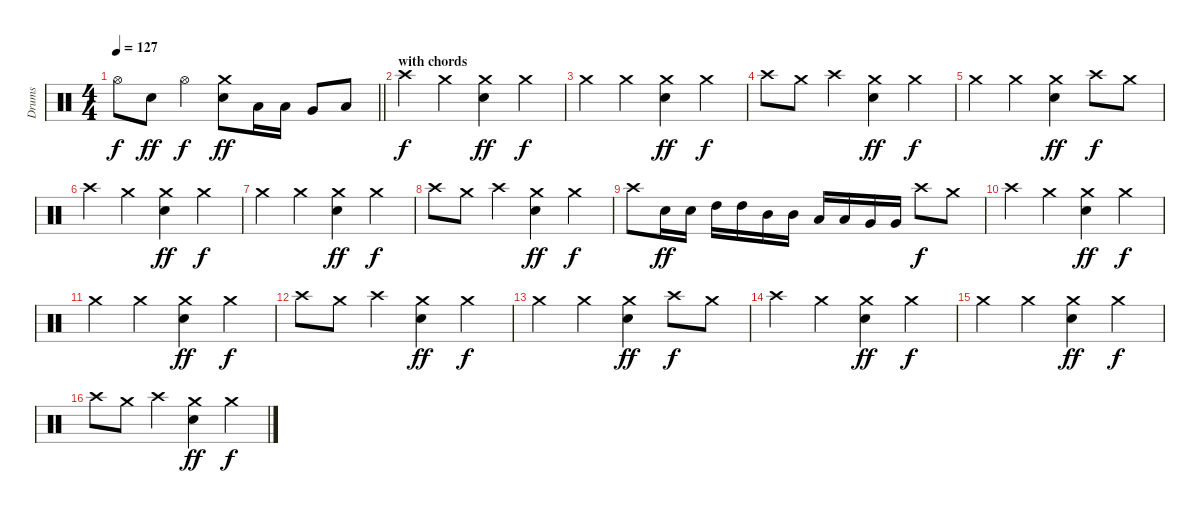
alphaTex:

\track ("Drums" "Drums") {instrument percussion}
\staff {score}
\articulation defaults
\ts (4 4)
\tempo 127
\clef neutral
\barLineRight lightlight
\ks c "Hi-Hat (open)".8{dy f} "Snare (hit) 2".8{dy ff} "Hi-Hat (open)".4{dy f}
("Crash medium (hit)" "Snare (hit) 2").8{dy ff} "Low Tom (hit)".16 "Low Tom (hit)".16 "Very Low Tom (hit)".8 "Low Floor Tom (hit)".8 |
\section ("" "with chords")
"Crash high (hit)".4{dy f} "Crash medium (hit)".4 ("Crash medium (hit)" "Snare (hit) 2").4{dy ff} "Crash medium (hit)".4{dy f} |
"Crash medium (hit)".4 "Crash medium (hit)".4 ("Crash medium (hit)" "Snare (hit) 2").4{dy ff} "Crash medium (hit)".4{dy f} |
"Crash high (hit)".8 "Crash medium (hit)".8 "Crash high (hit)".4 ("Crash medium (hit)" "Snare (hit) 2").4{dy ff} "Crash medium (hit)".4{dy f} |
"Crash medium (hit)".4 "Crash medium (hit)".4 ("Crash medium (hit)" "Snare (hit) 2").4{dy ff} "Crash high (hit)".8{dy f} "Crash medium (hit)".8 |
"Crash high (hit)".4 "Crash medium (hit)".4 ("Crash medium (hit)" "Snare (hit) 2").4{dy ff} "Crash medium (hit)".4{dy f} |
"Crash medium (hit)".4 "Crash medium (hit)".4 ("Crash medium (hit)" "Snare (hit) 2").4{dy ff} "Crash medium (hit)".4{dy f} |
"Crash high (hit)".8 "Crash medium (hit)".8 "Crash high (hit)".4 ("Crash medium (hit)" "Snare (hit) 2").4{dy ff} "Crash medium (hit)".4{dy f} |
"Crash high (hit)".8 "Snare (hit) 2".16{dy ff} "Snare (hit) 2".16 "High Tom (hit)".16 "High Tom (hit)".16 "Mid Tom (hit)".16 "Mid Tom (hit)".16 "Low Tom (hit)".16 "Low Tom (hit)".16 "Very Low Tom (hit)".16 "Very Low Tom (hit)".16 "Crash high (hit)".8{dy f} "Crash medium (hit)".8 |
"Crash high (hit)".4 "Crash medium (hit)".4 ("Crash medium (hit)" "Snare (hit) 2").4{dy ff} "Crash medium (hit)".4{dy f} |
"Crash medium (hit)".4 "Crash medium (hit)".4 ("Crash medium (hit)" "Snare (hit) 2").4{dy ff} "Crash medium (hit)".4{dy f} |
"Crash high (hit)".8 "Crash medium (hit)".8 "Crash high (hit)".4 ("Crash medium (hit)" "Snare (hit) 2").4{dy ff} "Crash medium (hit)".4{dy f} |
"Crash medium (hit)".4 "Crash medium (hit)".4 ("Crash medium (hit)" "Snare (hit) 2").4{dy ff} "Crash high (hit)".8{dy f} "Crash medium (hit)".8 |
"Crash high (hit)".4 "Crash medium (hit)".4 ("Crash medium (hit)" "Snare (hit) 2").4{dy ff} "Crash medium (hit)".4{dy f} |
"Crash medium (hit)".4 "Crash medium (hit)".4 ("Crash medium (hit)" "Snare (hit) 2").4{dy ff} "Crash medium (hit)".4{dy f} |
"Crash high (hit)".8 "Crash medium (hit)".8 "Crash high (hit)".4 ("Crash medium (hit)" "Snare (hit) 2").4{dy ff} "Crash medium (hit)".4{dy f}
